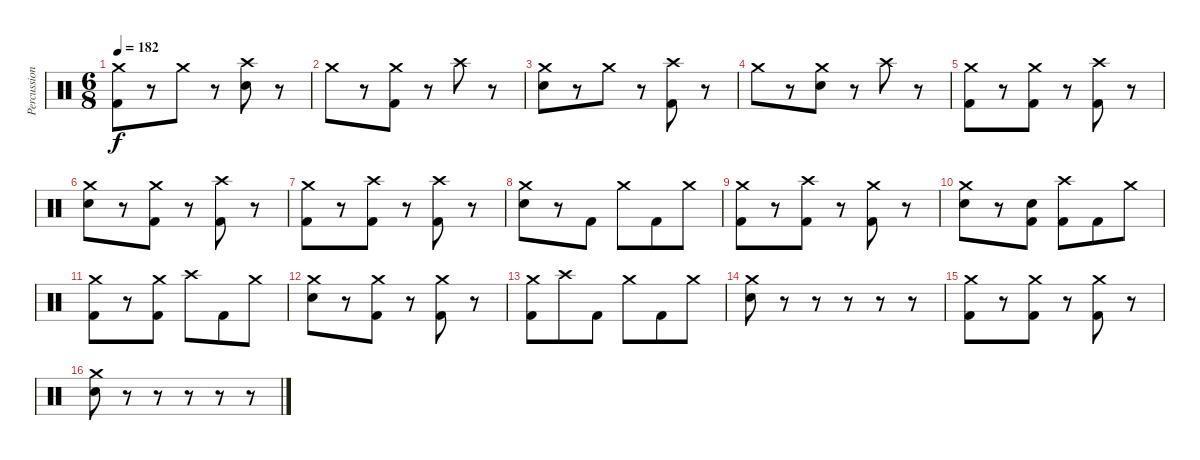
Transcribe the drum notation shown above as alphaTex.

\track ("Percussion" "Percussion") {instrument percussion}
\staff {score}
\articulation defaults
\ts (6 8)
\tempo 182
\clef neutral
\ks c
("Kick (hit) 2" "Crash medium (hit)").8{dy f} r.8 "Crash medium (hit)".8 r.8 ("Snare (hit) 2" "Crash high (hit)").8 r.8 |
"Crash medium (hit)".8 r.8 ("Kick (hit) 2" "Crash medium (hit)").8 r.8 "Crash high (hit)".8 r.8 |
("Snare (hit) 2" "Crash medium (hit)").8 r.8 "Crash medium (hit)".8 r.8 ("Kick (hit) 2" "Crash high (hit)").8 r.8 |
"Crash medium (hit)".8 r.8 ("Snare (hit) 2" "Crash medium (hit)").8 r.8 "Crash high (hit)".8 r.8 |
("Kick (hit) 2" "Crash medium (hit)").8 r.8 ("Kick (hit) 2" "Crash medium (hit)").8 r.8 ("Kick (hit) 2" "Crash high (hit)").8 r.8 |
("Snare (hit) 2" "Crash medium (hit)").8 r.8 ("Kick (hit) 2" "Crash medium (hit)").8 r.8 ("Kick (hit) 2" "Crash high (hit)").8 r.8 |
("Kick (hit) 2" "Crash medium (hit)").8 r.8 ("Kick (hit) 2" "Crash high (hit)").8 r.8 ("Kick (hit) 2" "Crash high (hit)").8 r.8 |
("Snare (hit) 2" "Crash medium (hit)").8 r.8 "Kick (hit) 2".8 "Crash medium (hit)".8 "Kick (hit) 2".8 "Crash medium (hit)".8 |
("Kick (hit) 2" "Crash medium (hit)").8 r.8 ("Kick (hit) 2" "Crash high (hit)").8 r.8 ("Kick (hit) 2" "Crash medium (hit)").8 r.8 |
("Snare (hit) 2" "Crash medium (hit)").8 r.8 ("Kick (hit) 2" "Snare (hit) 2").8 ("Kick (hit) 2" "Crash high (hit)").8 "Kick (hit) 2".8 "Crash medium (hit)".8 |
("Kick (hit) 2" "Crash medium (hit)").8 r.8 ("Kick (hit) 2" "Crash medium (hit)").8 "Crash high (hit)".8 "Kick (hit) 2".8 "Crash medium (hit)".8 |
("Snare (hit) 2" "Crash medium (hit)").8 r.8 ("Kick (hit) 2" "Crash medium (hit)").8 r.8 ("Kick (hit) 2" "Crash medium (hit)").8 r.8 |
("Kick (hit) 2" "Crash medium (hit)").8 "Crash high (hit)".8 "Kick (hit) 2".8 "Crash medium (hit)".8 "Kick (hit) 2".8 "Crash medium (hit)".8 |
("Snare (hit) 2" "Crash medium (hit)").8 r.8 r.8 r.8 r.8 r.8 |
("Kick (hit) 2" "Crash medium (hit)").8 r.8 ("Kick (hit) 2" "Crash medium (hit)").8 r.8 ("Kick (hit) 2" "Crash medium (hit)").8 r.8 |
("Snare (hit) 2" "Crash medium (hit)").8 r.8 r.8 r.8 r.8 r.8
